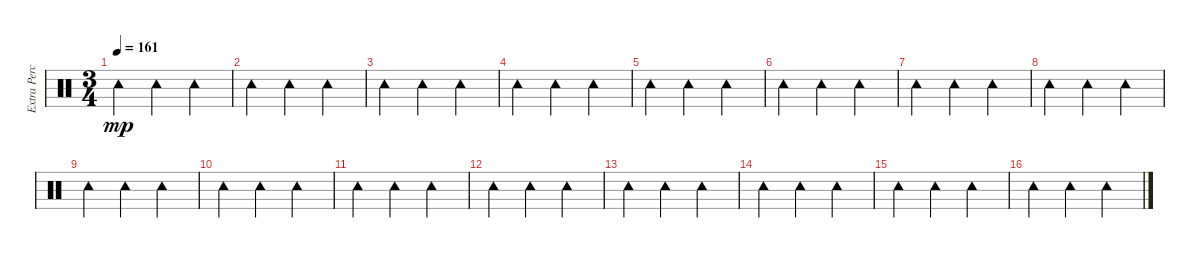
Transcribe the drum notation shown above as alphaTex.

\track ("Extra Percussion" "Extra Perc") {instrument percussion}
\staff {score}
\articulation defaults
\ts (3 4)
\tempo 161
\clef neutral
\ks c "Tambourine (hit)".4{dy mp} "Tambourine (hit)".4 "Tambourine (hit)".4
|
"Tambourine (hit)".4 "Tambourine (hit)".4 "Tambourine (hit)".4 |
"Tambourine (hit)".4 "Tambourine (hit)".4 "Tambourine (hit)".4 |
"Tambourine (hit)".4 "Tambourine (hit)".4 "Tambourine (hit)".4 |
"Tambourine (hit)".4 "Tambourine (hit)".4 "Tambourine (hit)".4 |
"Tambourine (hit)".4 "Tambourine (hit)".4 "Tambourine (hit)".4 |
"Tambourine (hit)".4 "Tambourine (hit)".4 "Tambourine (hit)".4 |
"Tambourine (hit)".4 "Tambourine (hit)".4 "Tambourine (hit)".4 |
"Tambourine (hit)".4 "Tambourine (hit)".4 "Tambourine (hit)".4 |
"Tambourine (hit)".4 "Tambourine (hit)".4 "Tambourine (hit)".4 |
"Tambourine (hit)".4 "Tambourine (hit)".4 "Tambourine (hit)".4 |
"Tambourine (hit)".4 "Tambourine (hit)".4 "Tambourine (hit)".4 |
"Tambourine (hit)".4 "Tambourine (hit)".4 "Tambourine (hit)".4 |
"Tambourine (hit)".4 "Tambourine (hit)".4 "Tambourine (hit)".4 |
"Tambourine (hit)".4 "Tambourine (hit)".4 "Tambourine (hit)".4 |
"Tambourine (hit)".4 "Tambourine (hit)".4 "Tambourine (hit)".4
